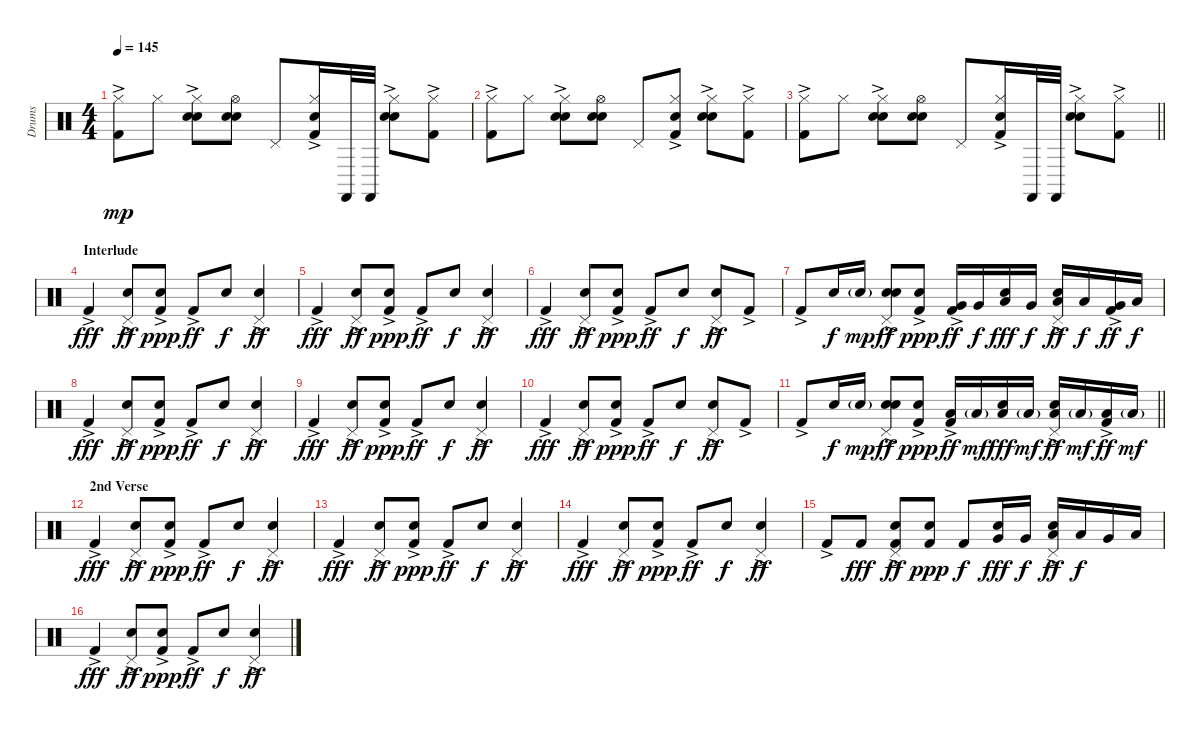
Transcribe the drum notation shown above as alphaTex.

\track ("Drums" "Drums") {instrument percussion}
\staff {score}
\articulation defaults
\ts (4 4)
\tempo 145
\clef neutral
\ks c
("Kick (hit) 2"{ac} "Hi-Hat (closed)").8{dy mp} "Hi-Hat (closed)".8 ("Hand Clap (hit)" "Electric Snare (hit)"{ac} "Hi-Hat (closed)").8 ("Hand Clap (hit)" "Electric Snare (hit)" "Hi-Hat (open)").8 "Pedal Hi-Hat (hit)".8 ("Kick (hit) 2"{ac} "Hand Clap (hit)" "Hi-Hat (closed)").16 "Castanets (hit)".32 "Castanets (hit)".32 ("Hand Clap (hit)" "Electric Snare (hit)"{ac} "Hi-Hat (closed)").8 ("Kick (hit) 2"{ac} "Hi-Hat (closed)").8 |
("Kick (hit) 2"{ac} "Hi-Hat (closed)").8 "Hi-Hat (closed)".8 ("Hand Clap (hit)" "Electric Snare (hit)"{ac} "Hi-Hat (closed)").8 ("Hand Clap (hit)" "Electric Snare (hit)" "Hi-Hat (open)").8 "Pedal Hi-Hat (hit)".8 ("Kick (hit) 2"{ac} "Hand Clap (hit)" "Hi-Hat (closed)").8 ("Hand Clap (hit)" "Electric Snare (hit)"{ac} "Hi-Hat (closed)").8 ("Kick (hit) 2"{ac} "Hi-Hat (closed)").8 |
\barLineRight lightlight
("Kick (hit) 2"{ac} "Hi-Hat (closed)").8 "Hi-Hat (closed)".8 ("Hand Clap (hit)" "Electric Snare (hit)"{ac} "Hi-Hat (closed)").8 ("Hand Clap (hit)" "Electric Snare (hit)" "Hi-Hat (open)").8 "Pedal Hi-Hat (hit)".8 ("Kick (hit) 2"{ac} "Hand Clap (hit)" "Hi-Hat (closed)").16 "Castanets (hit)".32 "Castanets (hit)".32 ("Hand Clap (hit)" "Electric Snare (hit)"{ac} "Hi-Hat (closed)").8 ("Kick (hit) 2"{ac} "Hi-Hat (closed)").8 |
\section ("" "Interlude")
"Kick (hit) 2"{ac}.4{dy fff} ("Pedal Hi-Hat (hit)" "Hand Clap (hit)"{ac}).8{dy ff} ("Kick (hit) 2"{ac} "Hand Clap (hit)").8{dy ppp} "Kick (hit) 2"{ac}.8{dy ff} "Hand Clap (hit)".8{dy f} ("Pedal Hi-Hat (hit)" "Hand Clap (hit)"{ac}).4{dy ff} |
"Kick (hit) 2"{ac}.4{dy fff} ("Pedal Hi-Hat (hit)" "Hand Clap (hit)"{ac}).8{dy ff} ("Kick (hit) 2"{ac} "Hand Clap (hit)").8{dy ppp} "Kick (hit) 2"{ac}.8{dy ff} "Hand Clap (hit)".8{dy f} ("Pedal Hi-Hat (hit)" "Hand Clap (hit)"{ac}).4{dy ff} |
"Kick (hit) 2"{ac}.4{dy fff} ("Pedal Hi-Hat (hit)" "Hand Clap (hit)"{ac}).8{dy ff} ("Kick (hit) 2"{ac} "Hand Clap (hit)").8{dy ppp} "Kick (hit) 2"{ac}.8{dy ff} "Hand Clap (hit)".8{dy f} ("Pedal Hi-Hat (hit)" "Hand Clap (hit)"{ac}).8{dy ff} "Kick (hit) 2"{ac}.8 |
"Kick (hit) 2"{ac}.8 "Electric Snare (hit)".16{dy f} "Electric Snare (hit)"{g}.16{dy mp} ("Pedal Hi-Hat (hit)" "Hand Clap (hit)"{ac} "Electric Snare (hit)"{ac}).8{dy ff} ("Kick (hit) 2"{ac} "Hand Clap (hit)").8{dy ppp} ("Kick (hit) 2"{ac} "Very Low Tom (hit)").16{dy ff} "Very Low Tom (hit)".16{dy f} ("Low Floor Tom (hit)" "Hand Clap (hit)").16{dy fff} "Very Low Tom (hit)".16{dy f} ("Pedal Hi-Hat (hit)" "Low Tom (hit)" "Hand Clap (hit)"{ac}).16{dy ff} "Low Tom (hit)".16{dy f} ("Kick (hit) 2"{ac} "Very Low Tom (hit)").16{dy ff} "Low Floor Tom (hit)".16{dy f} |
"Kick (hit) 2"{ac}.4{dy fff} ("Pedal Hi-Hat (hit)" "Hand Clap (hit)"{ac}).8{dy ff} ("Kick (hit) 2"{ac} "Hand Clap (hit)").8{dy ppp} "Kick (hit) 2"{ac}.8{dy ff} "Hand Clap (hit)".8{dy f} ("Pedal Hi-Hat (hit)" "Hand Clap (hit)"{ac}).4{dy ff} |
"Kick (hit) 2"{ac}.4{dy fff} ("Pedal Hi-Hat (hit)" "Hand Clap (hit)"{ac}).8{dy ff} ("Kick (hit) 2"{ac} "Hand Clap (hit)").8{dy ppp} "Kick (hit) 2"{ac}.8{dy ff} "Hand Clap (hit)".8{dy f} ("Pedal Hi-Hat (hit)" "Hand Clap (hit)"{ac}).4{dy ff} |
"Kick (hit) 2"{ac}.4{dy fff} ("Pedal Hi-Hat (hit)" "Hand Clap (hit)"{ac}).8{dy ff} ("Kick (hit) 2"{ac} "Hand Clap (hit)").8{dy ppp} "Kick (hit) 2"{ac}.8{dy ff} "Hand Clap (hit)".8{dy f} ("Pedal Hi-Hat (hit)" "Hand Clap (hit)"{ac}).8{dy ff} "Kick (hit) 2"{ac}.8 |
\barLineRight lightlight "Kick (hit) 2"{ac}.8 "Electric Snare (hit)".16{dy f} "Electric Snare (hit)"{g}.16{dy mp}
("Pedal Hi-Hat (hit)" "Hand Clap (hit)"{ac} "Electric Snare (hit)"{ac}).8{dy ff} ("Kick (hit) 2"{ac} "Hand Clap (hit)").8{dy ppp} ("Kick (hit) 2"{ac} "Low Tom (hit)").16{dy ff} "Low Tom (hit)"{g}.16{dy mf} ("Low Tom (hit)" "Hand Clap (hit)").16{dy fff} "Low Tom (hit)"{g}.16{dy mf} ("Pedal Hi-Hat (hit)" "Low Tom (hit)" "Hand Clap (hit)"{ac}).16{dy ff} "Low Tom (hit)"{g}.16{dy mf} ("Kick (hit) 2"{ac} "Low Tom (hit)").16{dy ff} "Low Tom (hit)"{g}.16{dy mf} |
\section ("" "2nd Verse")
"Kick (hit) 2"{ac}.4{dy fff} ("Pedal Hi-Hat (hit)" "Hand Clap (hit)"{ac}).8{dy ff} ("Kick (hit) 2"{ac} "Hand Clap (hit)").8{dy ppp} "Kick (hit) 2"{ac}.8{dy ff} "Hand Clap (hit)".8{dy f} ("Pedal Hi-Hat (hit)" "Hand Clap (hit)"{ac}).4{dy ff} |
"Kick (hit) 2"{ac}.4{dy fff} ("Pedal Hi-Hat (hit)" "Hand Clap (hit)"{ac}).8{dy ff} ("Kick (hit) 2"{ac} "Hand Clap (hit)").8{dy ppp} "Kick (hit) 2"{ac}.8{dy ff} "Hand Clap (hit)".8{dy f} ("Pedal Hi-Hat (hit)" "Hand Clap (hit)"{ac}).4{dy ff} |
"Kick (hit) 2"{ac}.4{dy fff} ("Pedal Hi-Hat (hit)" "Hand Clap (hit)"{ac}).8{dy ff} ("Kick (hit) 2"{ac} "Hand Clap (hit)").8{dy ppp} "Kick (hit) 2"{ac}.8{dy ff} "Hand Clap (hit)".8{dy f} ("Pedal Hi-Hat (hit)" "Hand Clap (hit)"{ac}).4{dy ff} |
"Kick (hit) 2"{ac}.8 "Kick (hit) 2".8{dy fff} ("Kick (hit) 2" "Pedal Hi-Hat (hit)" "Hand Clap (hit)"{ac}).8{dy ff} ("Kick (hit) 2" "Hand Clap (hit)").8{dy ppp} "Kick (hit) 2".8{dy f} ("Very Low Tom (hit)" "Hand Clap (hit)").16{dy fff} "Very Low Tom (hit)".16{dy f} ("Pedal Hi-Hat (hit)" "Low Tom (hit)" "Hand Clap (hit)"{ac}).16{dy ff} "Low Tom (hit)".16{dy f} "Very Low Tom (hit)".16 "Low Floor Tom (hit)".16 |
"Kick (hit) 2"{ac}.4{dy fff} ("Pedal Hi-Hat (hit)" "Hand Clap (hit)"{ac}).8{dy ff} ("Kick (hit) 2"{ac} "Hand Clap (hit)").8{dy ppp} "Kick (hit) 2"{ac}.8{dy ff} "Hand Clap (hit)".8{dy f} ("Pedal Hi-Hat (hit)" "Hand Clap (hit)"{ac}).4{dy ff}
